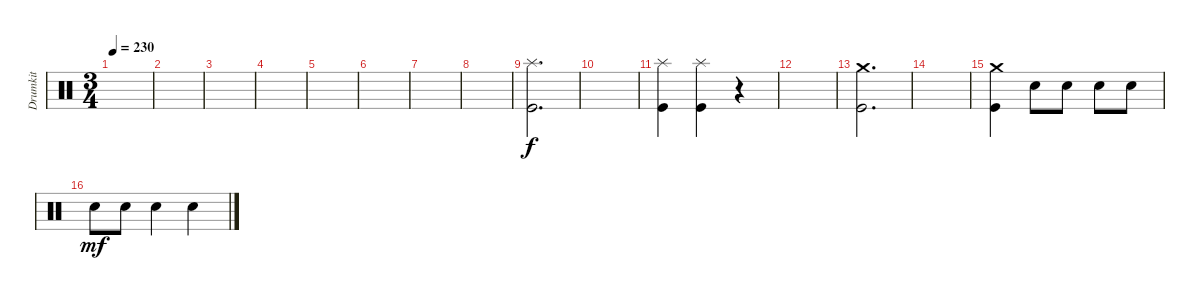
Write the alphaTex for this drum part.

\track ("Drumkit" "Drumkit") {instrument percussion}
\staff {score}
\articulation defaults
\ts (3 4)
\tempo 230
\clef neutral
\ks c
|
|
|
|
|
|
|
|
("Kick (hit)" "Splash (hit)").2{d} |
|
("Kick (hit)" "Splash (hit)").4 ("Kick (hit)" "Splash (hit)").4 r.4 |
|
("Kick (hit)" "Crash medium (hit)").2{d} |
|
("Kick (hit)" "Crash medium (hit)").4 "Snare (hit) 2".8 "Snare (hit) 2".8 "Snare (hit) 2".8 "Snare (hit) 2".8 |
"Snare (hit) 2".8{dy mf} "Snare (hit) 2".8 "Snare (hit) 2".4 "Snare (hit) 2".4
